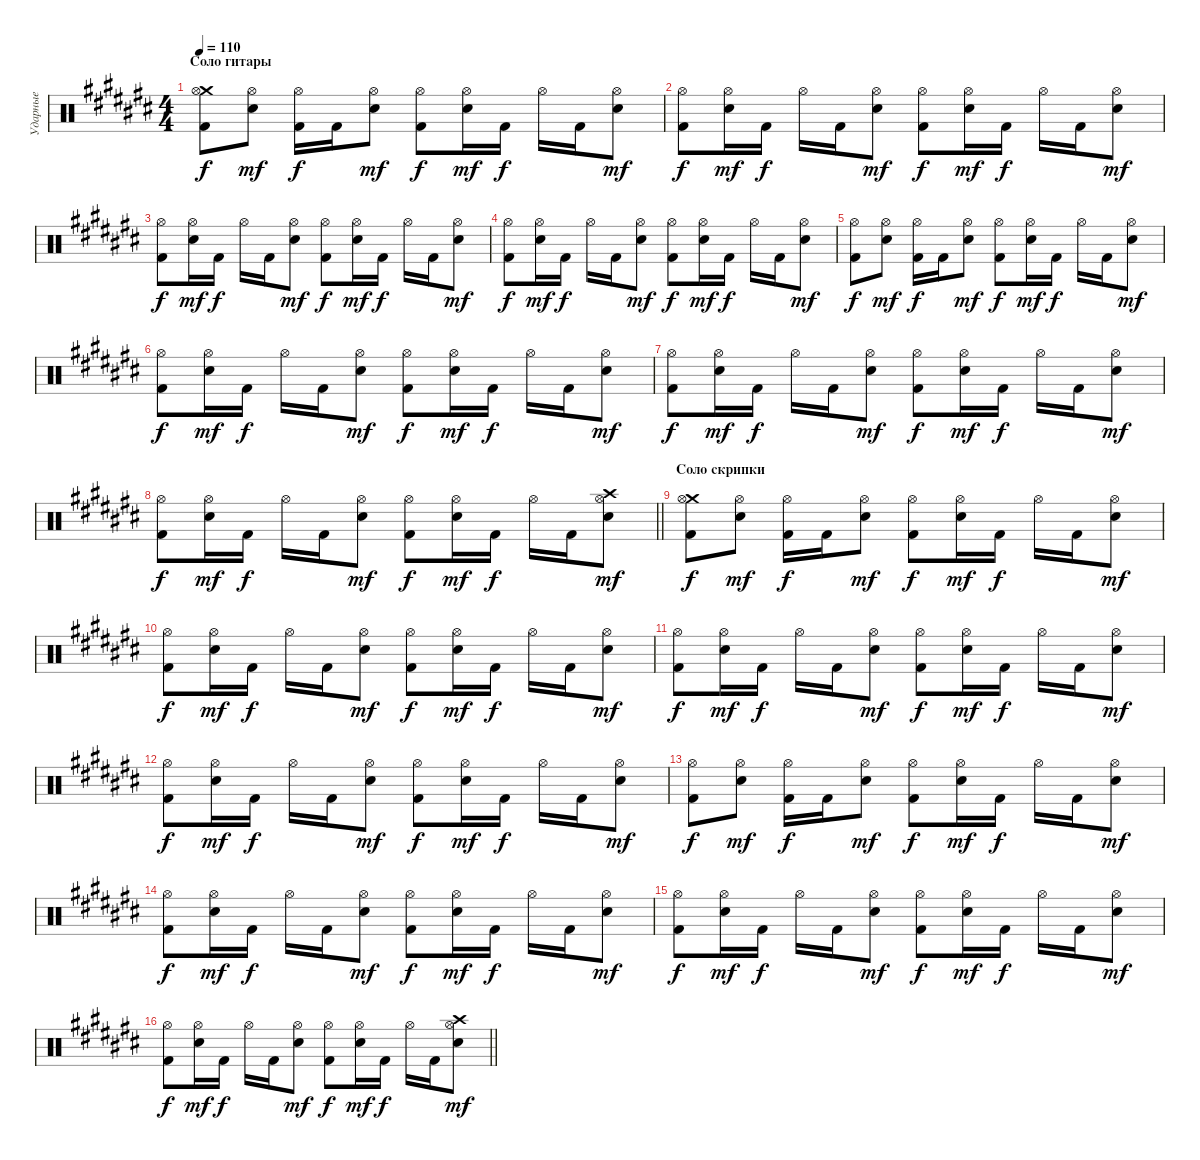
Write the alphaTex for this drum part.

\track ("Ударные" "Ударные") {instrument percussion}
\staff {score}
\articulation defaults
\ts (4 4)
\section ("" "Соло гитары")
\tempo 110
\clef neutral
\ks a#minor
("Crash medium (hit)" "Kick (hit) 2" "Hi-Hat (open)").8{dy f} ("Electric Snare (hit)" "Hi-Hat (open)").8{dy mf} ("Kick (hit) 2" "Hi-Hat (open)").16{dy f} "Kick (hit) 2".16 ("Electric Snare (hit)" "Hi-Hat (open)").8{dy mf} ("Kick (hit) 2" "Hi-Hat (open)").8{dy f} ("Electric Snare (hit)" "Hi-Hat (open)").16{dy mf} "Kick (hit) 2".16{dy f} "Hi-Hat (open)".16 "Kick (hit) 2".16 ("Electric Snare (hit)" "Hi-Hat (open)").8{dy mf} |
("Kick (hit) 2" "Hi-Hat (open)").8{dy f} ("Electric Snare (hit)" "Hi-Hat (open)").16{dy mf} "Kick (hit) 2".16{dy f} "Hi-Hat (open)".16 "Kick (hit) 2".16 ("Electric Snare (hit)" "Hi-Hat (open)").8{dy mf} ("Kick (hit) 2" "Hi-Hat (open)").8{dy f} ("Electric Snare (hit)" "Hi-Hat (open)").16{dy mf} "Kick (hit) 2".16{dy f} "Hi-Hat (open)".16 "Kick (hit) 2".16 ("Electric Snare (hit)" "Hi-Hat (open)").8{dy mf} |
("Kick (hit) 2" "Hi-Hat (open)").8{dy f} ("Electric Snare (hit)" "Hi-Hat (open)").16{dy mf} "Kick (hit) 2".16{dy f} "Hi-Hat (open)".16 "Kick (hit) 2".16 ("Electric Snare (hit)" "Hi-Hat (open)").8{dy mf} ("Kick (hit) 2" "Hi-Hat (open)").8{dy f} ("Electric Snare (hit)" "Hi-Hat (open)").16{dy mf} "Kick (hit) 2".16{dy f} "Hi-Hat (open)".16 "Kick (hit) 2".16 ("Electric Snare (hit)" "Hi-Hat (open)").8{dy mf} |
("Kick (hit) 2" "Hi-Hat (open)").8{dy f} ("Electric Snare (hit)" "Hi-Hat (open)").16{dy mf} "Kick (hit) 2".16{dy f} "Hi-Hat (open)".16 "Kick (hit) 2".16 ("Electric Snare (hit)" "Hi-Hat (open)").8{dy mf} ("Kick (hit) 2" "Hi-Hat (open)").8{dy f} ("Electric Snare (hit)" "Hi-Hat (open)").16{dy mf} "Kick (hit) 2".16{dy f} "Hi-Hat (open)".16 "Kick (hit) 2".16 ("Electric Snare (hit)" "Hi-Hat (open)").8{dy mf} |
("Kick (hit) 2" "Hi-Hat (open)").8{dy f} ("Electric Snare (hit)" "Hi-Hat (open)").8{dy mf} ("Kick (hit) 2" "Hi-Hat (open)").16{dy f} "Kick (hit) 2".16 ("Electric Snare (hit)" "Hi-Hat (open)").8{dy mf} ("Kick (hit) 2" "Hi-Hat (open)").8{dy f} ("Electric Snare (hit)" "Hi-Hat (open)").16{dy mf} "Kick (hit) 2".16{dy f} "Hi-Hat (open)".16 "Kick (hit) 2".16 ("Electric Snare (hit)" "Hi-Hat (open)").8{dy mf} |
("Kick (hit) 2" "Hi-Hat (open)").8{dy f} ("Electric Snare (hit)" "Hi-Hat (open)").16{dy mf} "Kick (hit) 2".16{dy f} "Hi-Hat (open)".16 "Kick (hit) 2".16 ("Electric Snare (hit)" "Hi-Hat (open)").8{dy mf} ("Kick (hit) 2" "Hi-Hat (open)").8{dy f} ("Electric Snare (hit)" "Hi-Hat (open)").16{dy mf} "Kick (hit) 2".16{dy f} "Hi-Hat (open)".16 "Kick (hit) 2".16 ("Electric Snare (hit)" "Hi-Hat (open)").8{dy mf} |
("Kick (hit) 2" "Hi-Hat (open)").8{dy f} ("Electric Snare (hit)" "Hi-Hat (open)").16{dy mf} "Kick (hit) 2".16{dy f} "Hi-Hat (open)".16 "Kick (hit) 2".16 ("Electric Snare (hit)" "Hi-Hat (open)").8{dy mf} ("Kick (hit) 2" "Hi-Hat (open)").8{dy f} ("Electric Snare (hit)" "Hi-Hat (open)").16{dy mf} "Kick (hit) 2".16{dy f} "Hi-Hat (open)".16 "Kick (hit) 2".16 ("Electric Snare (hit)" "Hi-Hat (open)").8{dy mf} |
\barLineRight lightlight
("Kick (hit) 2" "Hi-Hat (open)").8{dy f} ("Electric Snare (hit)" "Hi-Hat (open)").16{dy mf} "Kick (hit) 2".16{dy f} "Hi-Hat (open)".16 "Kick (hit) 2".16 ("Electric Snare (hit)" "Hi-Hat (open)").8{dy mf} ("Kick (hit) 2" "Hi-Hat (open)").8{dy f} ("Electric Snare (hit)" "Hi-Hat (open)").16{dy mf} "Kick (hit) 2".16{dy f} "Hi-Hat (open)".16 "Kick (hit) 2".16 ("Crash high (hit)" "Electric Snare (hit)" "Hi-Hat (open)").8{dy mf} |
\section ("" "Соло скрипки")
("Crash medium (hit)" "Kick (hit) 2" "Hi-Hat (open)").8{dy f} ("Electric Snare (hit)" "Hi-Hat (open)").8{dy mf} ("Kick (hit) 2" "Hi-Hat (open)").16{dy f} "Kick (hit) 2".16 ("Electric Snare (hit)" "Hi-Hat (open)").8{dy mf} ("Kick (hit) 2" "Hi-Hat (open)").8{dy f} ("Electric Snare (hit)" "Hi-Hat (open)").16{dy mf} "Kick (hit) 2".16{dy f} "Hi-Hat (open)".16 "Kick (hit) 2".16 ("Electric Snare (hit)" "Hi-Hat (open)").8{dy mf} |
("Kick (hit) 2" "Hi-Hat (open)").8{dy f} ("Electric Snare (hit)" "Hi-Hat (open)").16{dy mf} "Kick (hit) 2".16{dy f} "Hi-Hat (open)".16 "Kick (hit) 2".16 ("Electric Snare (hit)" "Hi-Hat (open)").8{dy mf} ("Kick (hit) 2" "Hi-Hat (open)").8{dy f} ("Electric Snare (hit)" "Hi-Hat (open)").16{dy mf} "Kick (hit) 2".16{dy f} "Hi-Hat (open)".16 "Kick (hit) 2".16 ("Electric Snare (hit)" "Hi-Hat (open)").8{dy mf} |
("Kick (hit) 2" "Hi-Hat (open)").8{dy f} ("Electric Snare (hit)" "Hi-Hat (open)").16{dy mf} "Kick (hit) 2".16{dy f} "Hi-Hat (open)".16 "Kick (hit) 2".16 ("Electric Snare (hit)" "Hi-Hat (open)").8{dy mf} ("Kick (hit) 2" "Hi-Hat (open)").8{dy f} ("Electric Snare (hit)" "Hi-Hat (open)").16{dy mf} "Kick (hit) 2".16{dy f} "Hi-Hat (open)".16 "Kick (hit) 2".16 ("Electric Snare (hit)" "Hi-Hat (open)").8{dy mf} |
("Kick (hit) 2" "Hi-Hat (open)").8{dy f} ("Electric Snare (hit)" "Hi-Hat (open)").16{dy mf} "Kick (hit) 2".16{dy f} "Hi-Hat (open)".16 "Kick (hit) 2".16 ("Electric Snare (hit)" "Hi-Hat (open)").8{dy mf} ("Kick (hit) 2" "Hi-Hat (open)").8{dy f} ("Electric Snare (hit)" "Hi-Hat (open)").16{dy mf} "Kick (hit) 2".16{dy f} "Hi-Hat (open)".16 "Kick (hit) 2".16 ("Electric Snare (hit)" "Hi-Hat (open)").8{dy mf} |
("Kick (hit) 2" "Hi-Hat (open)").8{dy f} ("Electric Snare (hit)" "Hi-Hat (open)").8{dy mf} ("Kick (hit) 2" "Hi-Hat (open)").16{dy f} "Kick (hit) 2".16 ("Electric Snare (hit)" "Hi-Hat (open)").8{dy mf} ("Kick (hit) 2" "Hi-Hat (open)").8{dy f} ("Electric Snare (hit)" "Hi-Hat (open)").16{dy mf} "Kick (hit) 2".16{dy f} "Hi-Hat (open)".16 "Kick (hit) 2".16 ("Electric Snare (hit)" "Hi-Hat (open)").8{dy mf} |
("Kick (hit) 2" "Hi-Hat (open)").8{dy f} ("Electric Snare (hit)" "Hi-Hat (open)").16{dy mf} "Kick (hit) 2".16{dy f} "Hi-Hat (open)".16 "Kick (hit) 2".16 ("Electric Snare (hit)" "Hi-Hat (open)").8{dy mf} ("Kick (hit) 2" "Hi-Hat (open)").8{dy f} ("Electric Snare (hit)" "Hi-Hat (open)").16{dy mf} "Kick (hit) 2".16{dy f} "Hi-Hat (open)".16 "Kick (hit) 2".16 ("Electric Snare (hit)" "Hi-Hat (open)").8{dy mf} |
("Kick (hit) 2" "Hi-Hat (open)").8{dy f} ("Electric Snare (hit)" "Hi-Hat (open)").16{dy mf} "Kick (hit) 2".16{dy f} "Hi-Hat (open)".16 "Kick (hit) 2".16 ("Electric Snare (hit)" "Hi-Hat (open)").8{dy mf} ("Kick (hit) 2" "Hi-Hat (open)").8{dy f} ("Electric Snare (hit)" "Hi-Hat (open)").16{dy mf} "Kick (hit) 2".16{dy f} "Hi-Hat (open)".16 "Kick (hit) 2".16 ("Electric Snare (hit)" "Hi-Hat (open)").8{dy mf} |
\barLineRight lightlight
("Kick (hit) 2" "Hi-Hat (open)").8{dy f} ("Electric Snare (hit)" "Hi-Hat (open)").16{dy mf} "Kick (hit) 2".16{dy f} "Hi-Hat (open)".16 "Kick (hit) 2".16 ("Electric Snare (hit)" "Hi-Hat (open)").8{dy mf} ("Kick (hit) 2" "Hi-Hat (open)").8{dy f} ("Electric Snare (hit)" "Hi-Hat (open)").16{dy mf} "Kick (hit) 2".16{dy f} "Hi-Hat (open)".16 "Kick (hit) 2".16 ("Crash high (hit)" "Electric Snare (hit)" "Hi-Hat (open)").8{dy mf}
